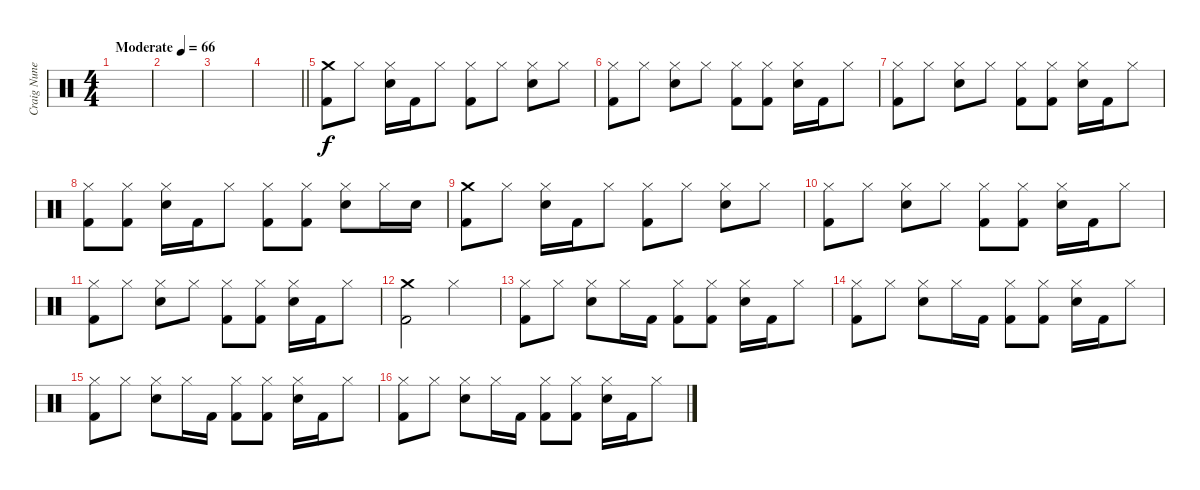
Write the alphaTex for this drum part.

\track ("Craig Nunenmacher" "Craig Nune") {instrument percussion}
\staff {score}
\articulation defaults
\ts (4 4)
\tempo (66 "Moderate")
\clef neutral
\ks c
|
|
|
\barLineRight lightlight
|
("Crash medium (hit)" "Kick (hit) 2").8 "Hi-Hat (closed)".8 ("Hi-Hat (closed)" "Snare (hit) 2").16 "Kick (hit) 2".16 "Hi-Hat (closed)".8 ("Hi-Hat (closed)" "Kick (hit) 2").8 "Hi-Hat (closed)".8 ("Hi-Hat (closed)" "Snare (hit) 2").8 "Hi-Hat (closed)".8 |
("Hi-Hat (closed)" "Kick (hit) 2").8 "Hi-Hat (closed)".8 ("Hi-Hat (closed)" "Snare (hit) 2").8 "Hi-Hat (closed)".8 ("Hi-Hat (closed)" "Kick (hit) 2").8 ("Hi-Hat (closed)" "Kick (hit) 2").8 ("Hi-Hat (closed)" "Snare (hit) 2").16 "Kick (hit) 2".16 "Hi-Hat (closed)".8 |
("Hi-Hat (closed)" "Kick (hit) 2").8 "Hi-Hat (closed)".8 ("Hi-Hat (closed)" "Snare (hit) 2").8 "Hi-Hat (closed)".8 ("Hi-Hat (closed)" "Kick (hit) 2").8 ("Hi-Hat (closed)" "Kick (hit) 2").8 ("Hi-Hat (closed)" "Snare (hit) 2").16 "Kick (hit) 2".16 "Hi-Hat (closed)".8 |
("Hi-Hat (closed)" "Kick (hit) 2").8 ("Hi-Hat (closed)" "Kick (hit) 2").8 ("Hi-Hat (closed)" "Snare (hit) 2").16 "Kick (hit) 2".16 "Hi-Hat (closed)".8 ("Hi-Hat (closed)" "Kick (hit) 2").8 ("Hi-Hat (closed)" "Kick (hit) 2").8 ("Hi-Hat (closed)" "Snare (hit) 2").8 "Hi-Hat (closed)".16 "Snare (hit) 2".16 |
("Crash medium (hit)" "Kick (hit) 2").8 "Hi-Hat (closed)".8 ("Hi-Hat (closed)" "Snare (hit) 2").16 "Kick (hit) 2".16 "Hi-Hat (closed)".8 ("Hi-Hat (closed)" "Kick (hit) 2").8 "Hi-Hat (closed)".8 ("Hi-Hat (closed)" "Snare (hit) 2").8 "Hi-Hat (closed)".8 |
("Hi-Hat (closed)" "Kick (hit) 2").8 "Hi-Hat (closed)".8 ("Hi-Hat (closed)" "Snare (hit) 2").8 "Hi-Hat (closed)".8 ("Hi-Hat (closed)" "Kick (hit) 2").8 ("Hi-Hat (closed)" "Kick (hit) 2").8 ("Hi-Hat (closed)" "Snare (hit) 2").16 "Kick (hit) 2".16 "Hi-Hat (closed)".8 |
("Hi-Hat (closed)" "Kick (hit) 2").8 "Hi-Hat (closed)".8 ("Hi-Hat (closed)" "Snare (hit) 2").8 "Hi-Hat (closed)".8 ("Hi-Hat (closed)" "Kick (hit) 2").8 ("Hi-Hat (closed)" "Kick (hit) 2").8 ("Hi-Hat (closed)" "Snare (hit) 2").16 "Kick (hit) 2".16 "Hi-Hat (closed)".8 |
("Crash medium (hit)" "Kick (hit) 2").2 "Hi-Hat (closed)".2 |
("Hi-Hat (closed)" "Kick (hit) 2").8 "Hi-Hat (closed)".8 ("Hi-Hat (closed)" "Snare (hit) 2").8 "Hi-Hat (closed)".16 "Kick (hit) 2".16 ("Hi-Hat (closed)" "Kick (hit) 2").8 ("Hi-Hat (closed)" "Kick (hit) 2").8 ("Hi-Hat (closed)" "Snare (hit) 2").16 "Kick (hit) 2".16 "Hi-Hat (closed)".8 |
("Hi-Hat (closed)" "Kick (hit) 2").8 "Hi-Hat (closed)".8 ("Hi-Hat (closed)" "Snare (hit) 2").8 "Hi-Hat (closed)".16 "Kick (hit) 2".16 ("Hi-Hat (closed)" "Kick (hit) 2").8 ("Hi-Hat (closed)" "Kick (hit) 2").8 ("Hi-Hat (closed)" "Snare (hit) 2").16 "Kick (hit) 2".16 "Hi-Hat (closed)".8 |
("Hi-Hat (closed)" "Kick (hit) 2").8 "Hi-Hat (closed)".8 ("Hi-Hat (closed)" "Snare (hit) 2").8 "Hi-Hat (closed)".16 "Kick (hit) 2".16 ("Hi-Hat (closed)" "Kick (hit) 2").8 ("Hi-Hat (closed)" "Kick (hit) 2").8 ("Hi-Hat (closed)" "Snare (hit) 2").16 "Kick (hit) 2".16 "Hi-Hat (closed)".8 |
("Hi-Hat (closed)" "Kick (hit) 2").8 "Hi-Hat (closed)".8 ("Hi-Hat (closed)" "Snare (hit) 2").8 "Hi-Hat (closed)".16 "Kick (hit) 2".16 ("Hi-Hat (closed)" "Kick (hit) 2").8 ("Hi-Hat (closed)" "Kick (hit) 2").8 ("Hi-Hat (closed)" "Snare (hit) 2").16 "Kick (hit) 2".16 "Hi-Hat (closed)".8
